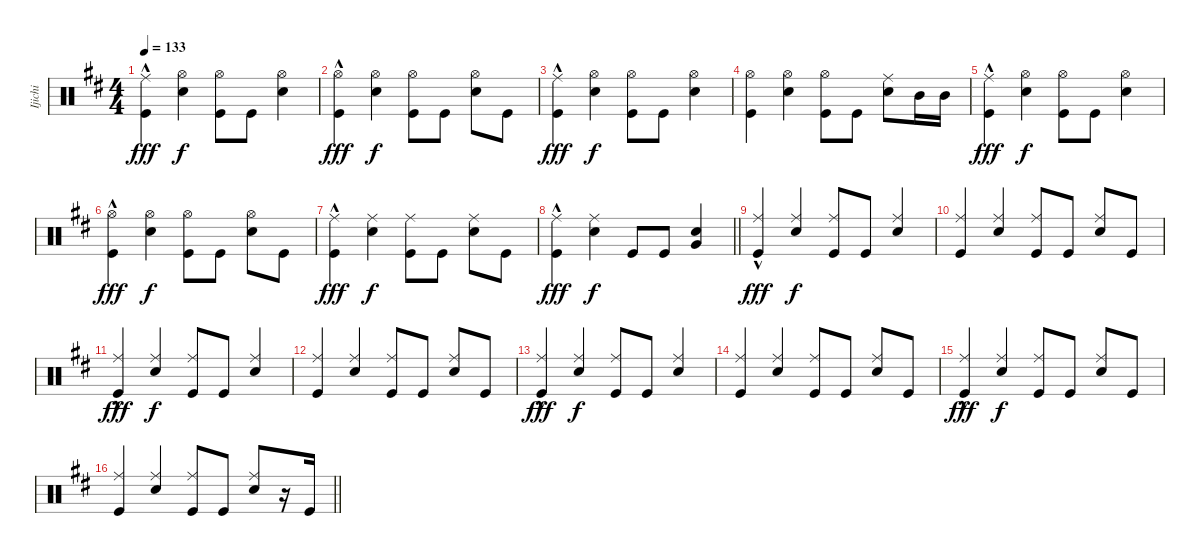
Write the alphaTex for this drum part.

\track ("Ijichi" "Ijichi") {instrument percussion}
\staff {score}
\articulation defaults
\ts (4 4)
\tempo 133
\clef neutral
\ks d
("Ride (middle)"{hac} "Kick (hit)").4{dy fff} ("Hi-Hat (open)" "Snare (hit) 2").4{dy f} ("Hi-Hat (open)" "Kick (hit)").8 "Kick (hit)".8 ("Hi-Hat (open)" "Snare (hit) 2").4 |
("Hi-Hat (open)"{hac} "Kick (hit)").4{dy fff} ("Hi-Hat (open)" "Snare (hit) 2").4{dy f} ("Hi-Hat (open)" "Kick (hit)").8 "Kick (hit)".8 ("Hi-Hat (open)" "Snare (hit) 2").8 "Kick (hit)".8 |
("Ride (middle)"{hac} "Kick (hit)").4{dy fff} ("Hi-Hat (open)" "Snare (hit) 2").4{dy f} ("Hi-Hat (open)" "Kick (hit)").8 "Kick (hit)".8 ("Hi-Hat (open)" "Snare (hit) 2").4 |
("Hi-Hat (open)" "Kick (hit)").4 ("Hi-Hat (open)" "Snare (hit) 2").4 ("Hi-Hat (open)" "Kick (hit)").8 "Kick (hit)".8 ("Ride (middle)" "Snare (hit) 2").8 "Mid Tom (hit)".16 "Mid Tom (hit)".16 |
("Ride (middle)"{hac} "Kick (hit)").4{dy fff} ("Hi-Hat (open)" "Snare (hit) 2").4{dy f} ("Hi-Hat (open)" "Kick (hit)").8 "Kick (hit)".8 ("Hi-Hat (open)" "Snare (hit) 2").4 |
("Hi-Hat (open)"{hac} "Kick (hit)").4{dy fff} ("Hi-Hat (open)" "Snare (hit) 2").4{dy f} ("Hi-Hat (open)" "Kick (hit)").8 "Kick (hit)".8 ("Hi-Hat (open)" "Snare (hit) 2").8 "Kick (hit)".8 |
("Ride (middle)"{hac} "Kick (hit)").4{dy fff} ("Ride (middle)" "Snare (hit) 2").4{dy f} ("Ride (middle)" "Kick (hit)").8 "Kick (hit)".8 ("Ride (middle)" "Snare (hit) 2").8 "Kick (hit)".8 |
\barLineRight lightlight
("Ride (middle)"{hac} "Kick (hit)").4{dy fff} ("Ride (middle)" "Snare (hit) 2").4{dy f} "Kick (hit)".8 "Kick (hit)".8 ("Very Low Tom (hit)" "Snare (hit) 2").4 |
("Ride (middle)"{hac} "Kick (hit)").4{dy fff beam Up} ("Ride (middle)" "Snare (hit) 2").4{dy f beam Up} ("Ride (middle)" "Kick (hit)").8{beam Up} "Kick (hit)".8{beam Up} ("Ride (middle)" "Snare (hit) 2").4{beam Up} |
("Ride (middle)" "Kick (hit)").4{beam Up} ("Ride (middle)" "Snare (hit) 2").4{beam Up} ("Ride (middle)" "Kick (hit)").8{beam Up} "Kick (hit)".8{beam Up} ("Ride (middle)" "Snare (hit) 2").8{beam Up} "Kick (hit)".8{beam Up} |
("Ride (middle)"{hac} "Kick (hit)").4{dy fff beam Up} ("Ride (middle)" "Snare (hit) 2").4{dy f beam Up} ("Ride (middle)" "Kick (hit)").8{beam Up} "Kick (hit)".8{beam Up} ("Ride (middle)" "Snare (hit) 2").4{beam Up} |
("Ride (middle)" "Kick (hit)").4{beam Up} ("Ride (middle)" "Snare (hit) 2").4{beam Up} ("Ride (middle)" "Kick (hit)").8{beam Up} "Kick (hit)".8{beam Up} ("Ride (middle)" "Snare (hit) 2").8{beam Up} "Kick (hit)".8{beam Up} |
("Ride (middle)"{hac} "Kick (hit)").4{dy fff beam Up} ("Ride (middle)" "Snare (hit) 2").4{dy f beam Up} ("Ride (middle)" "Kick (hit)").8{beam Up} "Kick (hit)".8{beam Up} ("Ride (middle)" "Snare (hit) 2").4{beam Up} |
("Ride (middle)" "Kick (hit)").4{beam Up} ("Ride (middle)" "Snare (hit) 2").4{beam Up} ("Ride (middle)" "Kick (hit)").8{beam Up} "Kick (hit)".8{beam Up} ("Ride (middle)" "Snare (hit) 2").8{beam Up} "Kick (hit)".8{beam Up} |
("Ride (middle)"{hac} "Kick (hit)").4{dy fff beam Up} ("Ride (middle)" "Snare (hit) 2").4{dy f beam Up} ("Ride (middle)" "Kick (hit)").8{beam Up} "Kick (hit)".8{beam Up} ("Ride (middle)" "Snare (hit) 2").8{beam Up} "Kick (hit)".8 |
\barLineRight lightlight
("Ride (middle)" "Kick (hit)").4{beam Up} ("Ride (middle)" "Snare (hit) 2").4{beam Up} ("Ride (middle)" "Kick (hit)").8{beam Up} "Kick (hit)".8{beam Up} ("Ride (middle)" "Snare (hit) 2").8{beam Up} r.16 "Kick (hit)".16
